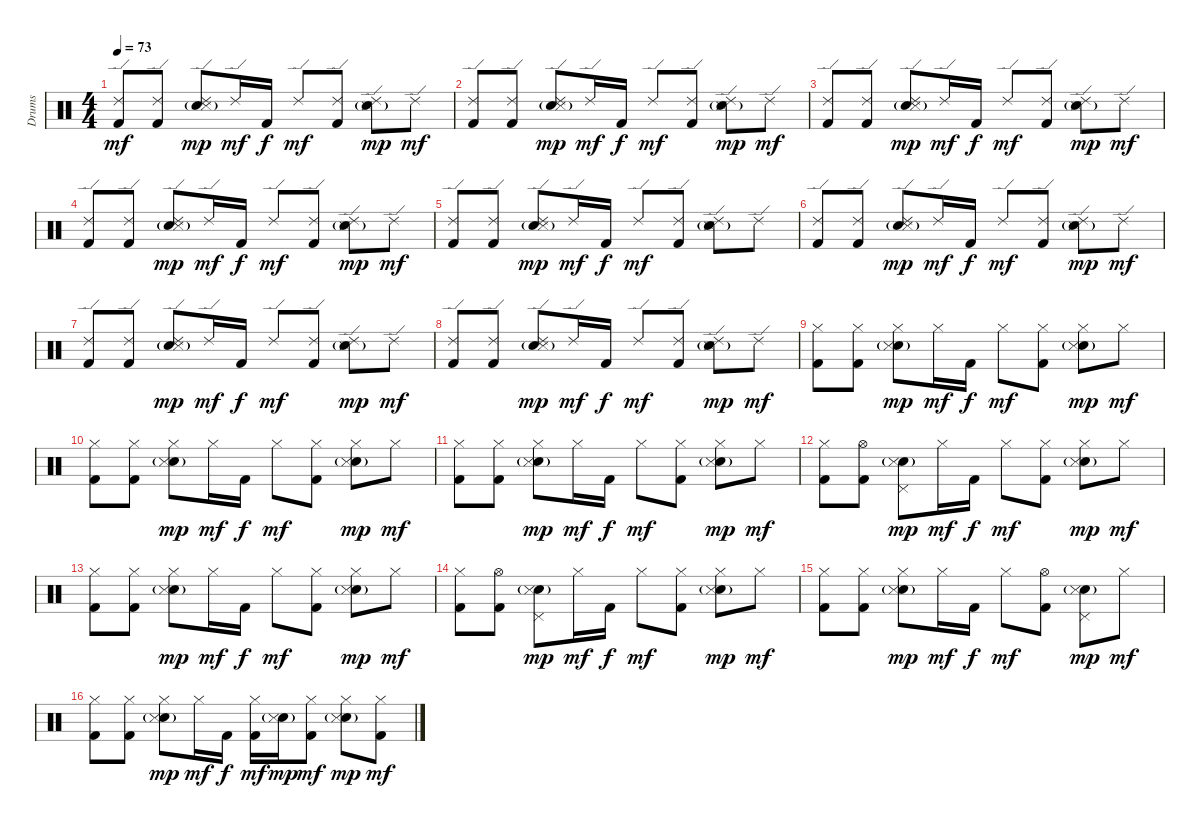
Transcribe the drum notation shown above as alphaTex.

\track ("Drums" "Drums") {instrument percussion}
\staff {score}
\articulation defaults
\ts (4 4)
\tempo 73
\clef neutral
\ks c
("Ride (edge) 2" "Kick (hit) 2").8{dy mf} ("Ride (edge) 2" "Kick (hit) 2").8 ("Ride (edge) 2" "Electric Snare (hit)"{g} "Snare (side stick) 3").8{dy mp} "Ride (edge) 2".16{dy mf} "Kick (hit) 2".16{dy f} "Ride (edge) 2".8{dy mf} ("Ride (edge) 2" "Kick (hit) 2").8 ("Ride (edge) 2" "Electric Snare (hit)"{g} "Snare (side stick) 3").8{dy mp} "Ride (edge) 2".8{dy mf} |
("Ride (edge) 2" "Kick (hit) 2").8 ("Ride (edge) 2" "Kick (hit) 2").8 ("Ride (edge) 2" "Electric Snare (hit)"{g} "Snare (side stick) 3").8{dy mp} "Ride (edge) 2".16{dy mf} "Kick (hit) 2".16{dy f} "Ride (edge) 2".8{dy mf} ("Ride (edge) 2" "Kick (hit) 2").8 ("Ride (edge) 2" "Electric Snare (hit)"{g} "Snare (side stick) 3").8{dy mp} "Ride (edge) 2".8{dy mf} |
("Ride (edge) 2" "Kick (hit) 2").8 ("Ride (edge) 2" "Kick (hit) 2").8 ("Ride (edge) 2" "Electric Snare (hit)"{g} "Snare (side stick) 3").8{dy mp} "Ride (edge) 2".16{dy mf} "Kick (hit) 2".16{dy f} "Ride (edge) 2".8{dy mf} ("Ride (edge) 2" "Kick (hit) 2").8 ("Ride (edge) 2" "Electric Snare (hit)"{g} "Snare (side stick) 3").8{dy mp} "Ride (edge) 2".8{dy mf} |
("Ride (edge) 2" "Kick (hit) 2").8 ("Ride (edge) 2" "Kick (hit) 2").8 ("Ride (edge) 2" "Electric Snare (hit)"{g} "Snare (side stick) 3").8{dy mp} "Ride (edge) 2".16{dy mf} "Kick (hit) 2".16{dy f} "Ride (edge) 2".8{dy mf} ("Ride (edge) 2" "Kick (hit) 2").8 ("Ride (edge) 2" "Electric Snare (hit)"{g} "Snare (side stick) 3").8{dy mp} "Ride (edge) 2".8{dy mf} |
("Ride (edge) 2" "Kick (hit) 2").8 ("Ride (edge) 2" "Kick (hit) 2").8 ("Ride (edge) 2" "Electric Snare (hit)"{g} "Snare (side stick) 3").8{dy mp} "Ride (edge) 2".16{dy mf} "Kick (hit) 2".16{dy f} "Ride (edge) 2".8{dy mf} ("Ride (edge) 2" "Kick (hit) 2").8 ("Ride (edge) 2" "Electric Snare (hit)"{g} "Snare (side stick) 3").8 "Ride (edge) 2".8 |
("Ride (edge) 2" "Kick (hit) 2").8 ("Ride (edge) 2" "Kick (hit) 2").8 ("Ride (edge) 2" "Electric Snare (hit)"{g} "Snare (side stick) 3").8{dy mp} "Ride (edge) 2".16{dy mf} "Kick (hit) 2".16{dy f} "Ride (edge) 2".8{dy mf} ("Ride (edge) 2" "Kick (hit) 2").8 ("Ride (edge) 2" "Electric Snare (hit)"{g} "Snare (side stick) 3").8{dy mp} "Ride (edge) 2".8{dy mf} |
("Ride (edge) 2" "Kick (hit) 2").8 ("Ride (edge) 2" "Kick (hit) 2").8 ("Ride (edge) 2" "Electric Snare (hit)"{g} "Snare (side stick) 3").8{dy mp} "Ride (edge) 2".16{dy mf} "Kick (hit) 2".16{dy f} "Ride (edge) 2".8{dy mf} ("Ride (edge) 2" "Kick (hit) 2").8 ("Ride (edge) 2" "Electric Snare (hit)"{g} "Snare (side stick) 3").8{dy mp} "Ride (edge) 2".8{dy mf} |
("Ride (edge) 2" "Kick (hit) 2").8 ("Ride (edge) 2" "Kick (hit) 2").8 ("Ride (edge) 2" "Electric Snare (hit)"{g} "Snare (side stick) 3").8{dy mp} "Ride (edge) 2".16{dy mf} "Kick (hit) 2".16{dy f} "Ride (edge) 2".8{dy mf} ("Ride (edge) 2" "Kick (hit) 2").8 ("Ride (edge) 2" "Electric Snare (hit)"{g} "Snare (side stick) 3").8{dy mp} "Ride (edge) 2".8{dy mf} |
("Hi-Hat (closed)" "Kick (hit) 2").8 ("Hi-Hat (closed)" "Kick (hit) 2").8 ("Hi-Hat (closed)" "Snare (hit) 2"{g} "Snare (side stick) 3").8{dy mp} "Hi-Hat (closed)".16{dy mf} "Kick (hit) 2".16{dy f} "Hi-Hat (closed)".8{dy mf} ("Hi-Hat (closed)" "Kick (hit) 2").8 ("Hi-Hat (closed)" "Snare (hit) 2"{g} "Snare (side stick) 3").8{dy mp} "Hi-Hat (closed)".8{dy mf} |
("Hi-Hat (closed)" "Kick (hit) 2").8 ("Hi-Hat (closed)" "Kick (hit) 2").8 ("Hi-Hat (closed)" "Snare (hit) 2"{g} "Snare (side stick) 3").8{dy mp} "Hi-Hat (closed)".16{dy mf} "Kick (hit) 2".16{dy f} "Hi-Hat (closed)".8{dy mf} ("Hi-Hat (closed)" "Kick (hit) 2").8 ("Hi-Hat (closed)" "Snare (hit) 2"{g} "Snare (side stick) 3").8{dy mp} "Hi-Hat (closed)".8{dy mf} |
("Hi-Hat (closed)" "Kick (hit) 2").8 ("Hi-Hat (closed)" "Kick (hit) 2").8 ("Hi-Hat (closed)" "Snare (hit) 2"{g} "Snare (side stick) 3").8{dy mp} "Hi-Hat (closed)".16{dy mf} "Kick (hit) 2".16{dy f} "Hi-Hat (closed)".8{dy mf} ("Hi-Hat (closed)" "Kick (hit) 2").8 ("Hi-Hat (closed)" "Snare (hit) 2"{g} "Snare (side stick) 3").8{dy mp} "Hi-Hat (closed)".8{dy mf} |
("Hi-Hat (closed)" "Kick (hit) 2").8 ("Hi-Hat (open)" "Kick (hit) 2").8 ("Pedal Hi-Hat (hit)" "Snare (hit) 2"{g} "Snare (side stick) 3").8{dy mp} "Hi-Hat (closed)".16{dy mf} "Kick (hit) 2".16{dy f} "Hi-Hat (closed)".8{dy mf} ("Hi-Hat (closed)" "Kick (hit) 2").8 ("Hi-Hat (closed)" "Snare (hit) 2"{g} "Snare (side stick) 3").8{dy mp} "Hi-Hat (closed)".8{dy mf} |
("Hi-Hat (closed)" "Kick (hit) 2").8 ("Hi-Hat (closed)" "Kick (hit) 2").8 ("Hi-Hat (closed)" "Snare (hit) 2"{g} "Snare (side stick) 3").8{dy mp} "Hi-Hat (closed)".16{dy mf} "Kick (hit) 2".16{dy f} "Hi-Hat (closed)".8{dy mf} ("Hi-Hat (closed)" "Kick (hit) 2").8 ("Hi-Hat (closed)" "Snare (hit) 2"{g} "Snare (side stick) 3").8{dy mp} "Hi-Hat (closed)".8{dy mf} |
("Hi-Hat (closed)" "Kick (hit) 2").8 ("Hi-Hat (open)" "Kick (hit) 2").8 ("Pedal Hi-Hat (hit)" "Snare (hit) 2"{g} "Snare (side stick) 3").8{dy mp} "Hi-Hat (closed)".16{dy mf} "Kick (hit) 2".16{dy f} "Hi-Hat (closed)".8{dy mf} ("Hi-Hat (closed)" "Kick (hit) 2").8 ("Hi-Hat (closed)" "Snare (hit) 2"{g} "Snare (side stick) 3").8{dy mp} "Hi-Hat (closed)".8{dy mf} |
("Hi-Hat (closed)" "Kick (hit) 2").8 ("Hi-Hat (closed)" "Kick (hit) 2").8 ("Hi-Hat (closed)" "Snare (hit) 2"{g} "Snare (side stick) 3").8{dy mp} "Hi-Hat (closed)".16{dy mf} "Kick (hit) 2".16{dy f} "Hi-Hat (closed)".8{dy mf} ("Hi-Hat (open)" "Kick (hit) 2").8 ("Pedal Hi-Hat (hit)" "Snare (hit) 2"{g} "Snare (side stick) 3").8{dy mp} "Hi-Hat (closed)".8{dy mf} |
("Hi-Hat (closed)" "Kick (hit) 2").8 ("Hi-Hat (closed)" "Kick (hit) 2").8 ("Hi-Hat (closed)" "Snare (hit) 2"{g} "Snare (side stick) 3").8{dy mp} "Hi-Hat (closed)".16{dy mf} "Kick (hit) 2".16{dy f} ("Hi-Hat (closed)" "Kick (hit) 2").16{dy mf} ("Snare (hit) 2"{g} "Snare (side stick) 3").16{dy mp} ("Hi-Hat (closed)" "Kick (hit) 2").8{dy mf} ("Hi-Hat (closed)" "Snare (hit) 2"{g} "Snare (side stick) 3").8{dy mp} ("Hi-Hat (closed)" "Kick (hit) 2").8{dy mf}
